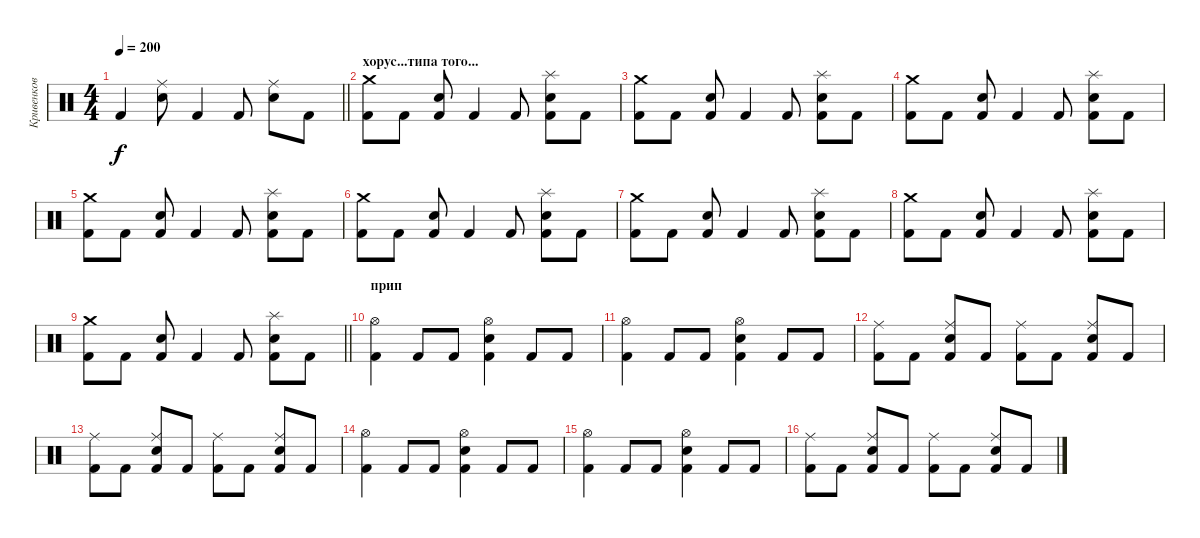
\track ("Кривенков" "Кривенков") {instrument percussion}
\staff {score}
\articulation defaults
\ts (4 4)
\tempo 200
\clef neutral
\barLineRight lightlight
\ks c "Kick (hit) 2".4{dy f}
("Ride (middle)" "Electric Snare (hit)").8 "Kick (hit) 2".4 "Kick (hit) 2".8 ("Ride (middle)" "Electric Snare (hit)").8 "Kick (hit) 2".8 |
\section ("" "хорус...типа того...")
("Crash medium (hit)" "Kick (hit) 2").8 "Kick (hit) 2".8 ("Electric Snare (hit)" "Kick (hit) 2").8 "Kick (hit) 2".4 "Kick (hit) 2".8 ("Splash (hit)" "Electric Snare (hit)" "Kick (hit) 2").8 "Kick (hit) 2".8 |
("Crash medium (hit)" "Kick (hit) 2").8 "Kick (hit) 2".8 ("Electric Snare (hit)" "Kick (hit) 2").8 "Kick (hit) 2".4 "Kick (hit) 2".8 ("Splash (hit)" "Electric Snare (hit)" "Kick (hit) 2").8 "Kick (hit) 2".8 |
("Crash medium (hit)" "Kick (hit) 2").8 "Kick (hit) 2".8 ("Electric Snare (hit)" "Kick (hit) 2").8 "Kick (hit) 2".4 "Kick (hit) 2".8 ("Splash (hit)" "Electric Snare (hit)" "Kick (hit) 2").8 "Kick (hit) 2".8 |
("Crash medium (hit)" "Kick (hit) 2").8 "Kick (hit) 2".8 ("Electric Snare (hit)" "Kick (hit) 2").8 "Kick (hit) 2".4 "Kick (hit) 2".8 ("Splash (hit)" "Electric Snare (hit)" "Kick (hit) 2").8 "Kick (hit) 2".8 |
("Crash medium (hit)" "Kick (hit) 2").8 "Kick (hit) 2".8 ("Electric Snare (hit)" "Kick (hit) 2").8 "Kick (hit) 2".4 "Kick (hit) 2".8 ("Splash (hit)" "Electric Snare (hit)" "Kick (hit) 2").8 "Kick (hit) 2".8 |
("Crash medium (hit)" "Kick (hit) 2").8 "Kick (hit) 2".8 ("Electric Snare (hit)" "Kick (hit) 2").8 "Kick (hit) 2".4 "Kick (hit) 2".8 ("Splash (hit)" "Electric Snare (hit)" "Kick (hit) 2").8 "Kick (hit) 2".8 |
("Crash medium (hit)" "Kick (hit) 2").8 "Kick (hit) 2".8 ("Electric Snare (hit)" "Kick (hit) 2").8 "Kick (hit) 2".4 "Kick (hit) 2".8 ("Splash (hit)" "Electric Snare (hit)" "Kick (hit) 2").8 "Kick (hit) 2".8 |
\barLineRight lightlight
("Crash medium (hit)" "Kick (hit) 2").8 "Kick (hit) 2".8 ("Electric Snare (hit)" "Kick (hit) 2").8 "Kick (hit) 2".4 "Kick (hit) 2".8 ("Splash (hit)" "Electric Snare (hit)" "Kick (hit) 2").8 "Kick (hit) 2".8 |
\section ("" "прип")
("Hi-Hat (open)" "Kick (hit) 2").4 "Kick (hit) 2".8 "Kick (hit) 2".8 ("Hi-Hat (open)" "Electric Snare (hit)" "Kick (hit) 2").4 "Kick (hit) 2".8 "Kick (hit) 2".8 |
("Hi-Hat (open)" "Kick (hit) 2").4 "Kick (hit) 2".8 "Kick (hit) 2".8 ("Hi-Hat (open)" "Electric Snare (hit)" "Kick (hit) 2").4 "Kick (hit) 2".8 "Kick (hit) 2".8 |
("Ride (middle)" "Kick (hit) 2").8 "Kick (hit) 2".8 ("Ride (middle)" "Electric Snare (hit)" "Kick (hit) 2").8 "Kick (hit) 2".8 ("Ride (middle)" "Kick (hit) 2").8 "Kick (hit) 2".8 ("Ride (middle)" "Electric Snare (hit)" "Kick (hit) 2").8 "Kick (hit) 2".8 |
("Ride (middle)" "Kick (hit) 2").8 "Kick (hit) 2".8 ("Ride (middle)" "Electric Snare (hit)" "Kick (hit) 2").8 "Kick (hit) 2".8 ("Ride (middle)" "Kick (hit) 2").8 "Kick (hit) 2".8 ("Ride (middle)" "Electric Snare (hit)" "Kick (hit) 2").8 "Kick (hit) 2".8 |
("Hi-Hat (open)" "Kick (hit) 2").4 "Kick (hit) 2".8 "Kick (hit) 2".8 ("Hi-Hat (open)" "Electric Snare (hit)" "Kick (hit) 2").4 "Kick (hit) 2".8 "Kick (hit) 2".8 |
("Hi-Hat (open)" "Kick (hit) 2").4 "Kick (hit) 2".8 "Kick (hit) 2".8 ("Hi-Hat (open)" "Electric Snare (hit)" "Kick (hit) 2").4 "Kick (hit) 2".8 "Kick (hit) 2".8 |
("Ride (middle)" "Kick (hit) 2").8 "Kick (hit) 2".8 ("Ride (middle)" "Electric Snare (hit)" "Kick (hit) 2").8 "Kick (hit) 2".8 ("Ride (middle)" "Kick (hit) 2").8 "Kick (hit) 2".8 ("Ride (middle)" "Electric Snare (hit)" "Kick (hit) 2").8 "Kick (hit) 2".8
